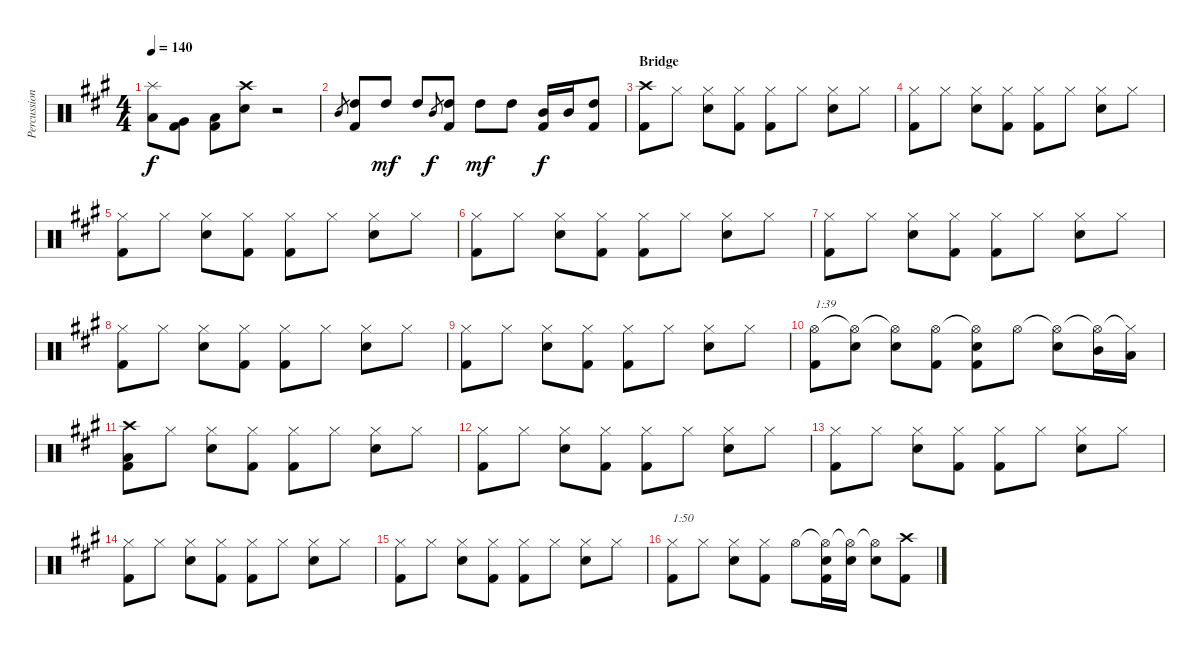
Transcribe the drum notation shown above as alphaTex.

\track ("Percussion" "Percussion") {instrument percussion}
\staff {score}
\articulation defaults
\ts (4 4)
\tempo 140
\clef neutral
\ks a
("Splash (hit)" "Low Tom (hit)").8{dy f} ("Very Low Tom (hit)" "Kick (hit) 2").8 ("Low Floor Tom (hit)" "Kick (hit) 2").8 ("Crash high (hit)" "Electric Snare (hit)").8 r.2 |
"Mid Tom (hit)".8{gr} ("High Tom (hit)" "Kick (hit) 2").8 "High Tom (hit)".8{dy mf} "High Tom (hit)".8 "Mid Tom (hit)".8{gr dy f} ("High Tom (hit)" "Kick (hit) 2").8 "High Tom (hit)".8{dy mf} "High Tom (hit)".8 ("Mid Tom (hit)" "Kick (hit) 2").16{dy f} "Mid Tom (hit)".16 ("High Tom (hit)" "Kick (hit) 2").8 |
\section ("" "Bridge")
("Crash high (hit)" "Kick (hit) 2").8 "Hi-Hat (closed)".8 ("Hi-Hat (closed)" "Electric Snare (hit)").8 ("Hi-Hat (closed)" "Kick (hit) 2").8 ("Hi-Hat (closed)" "Kick (hit) 2").8 "Hi-Hat (closed)".8 ("Hi-Hat (closed)" "Electric Snare (hit)").8 "Hi-Hat (closed)".8 |
("Hi-Hat (closed)" "Kick (hit) 2").8 "Hi-Hat (closed)".8 ("Hi-Hat (closed)" "Electric Snare (hit)").8 ("Hi-Hat (closed)" "Kick (hit) 2").8 ("Hi-Hat (closed)" "Kick (hit) 2").8 "Hi-Hat (closed)".8 ("Hi-Hat (closed)" "Electric Snare (hit)").8 "Hi-Hat (closed)".8 |
("Hi-Hat (closed)" "Kick (hit) 2").8 "Hi-Hat (closed)".8 ("Hi-Hat (closed)" "Electric Snare (hit)").8 ("Hi-Hat (closed)" "Kick (hit) 2").8 ("Hi-Hat (closed)" "Kick (hit) 2").8 "Hi-Hat (closed)".8 ("Hi-Hat (closed)" "Electric Snare (hit)").8 "Hi-Hat (closed)".8 |
("Hi-Hat (closed)" "Kick (hit) 2").8 "Hi-Hat (closed)".8 ("Hi-Hat (closed)" "Electric Snare (hit)").8 ("Hi-Hat (closed)" "Kick (hit) 2").8 ("Hi-Hat (closed)" "Kick (hit) 2").8 "Hi-Hat (closed)".8 ("Hi-Hat (closed)" "Electric Snare (hit)").8 "Hi-Hat (closed)".8 |
("Hi-Hat (closed)" "Kick (hit) 2").8 "Hi-Hat (closed)".8 ("Hi-Hat (closed)" "Electric Snare (hit)").8 ("Hi-Hat (closed)" "Kick (hit) 2").8 ("Hi-Hat (closed)" "Kick (hit) 2").8 "Hi-Hat (closed)".8 ("Hi-Hat (closed)" "Electric Snare (hit)").8 "Hi-Hat (closed)".8 |
("Hi-Hat (closed)" "Kick (hit) 2").8 "Hi-Hat (closed)".8 ("Hi-Hat (closed)" "Electric Snare (hit)").8 ("Hi-Hat (closed)" "Kick (hit) 2").8 ("Hi-Hat (closed)" "Kick (hit) 2").8 "Hi-Hat (closed)".8 ("Hi-Hat (closed)" "Electric Snare (hit)").8 "Hi-Hat (closed)".8 |
("Hi-Hat (closed)" "Kick (hit) 2").8 "Hi-Hat (closed)".8 ("Hi-Hat (closed)" "Electric Snare (hit)").8 ("Hi-Hat (closed)" "Kick (hit) 2").8 ("Hi-Hat (closed)" "Kick (hit) 2").8 "Hi-Hat (closed)".8 ("Hi-Hat (closed)" "Electric Snare (hit)").8 "Hi-Hat (closed)".8 |
("Hi-Hat (open)" "Kick (hit) 2").8{txt "1:39"} ("Hi-Hat (open)"{t} "Electric Snare (hit)").8 ("Hi-Hat (open)"{t} "Electric Snare (hit)").8 ("Hi-Hat (open)" "Kick (hit) 2").8 ("Hi-Hat (open)"{t} "Electric Snare (hit)" "Kick (hit) 2").8 "Hi-Hat (open)".8 ("Hi-Hat (open)"{t} "Electric Snare (hit)").8 ("Hi-Hat (open)"{t} "Mid Tom (hit)").16 ("Hi-Hat (closed)"{t} "Low Tom (hit)").16 |
("Crash high (hit)" "Low Tom (hit)" "Kick (hit) 2").8 "Hi-Hat (closed)".8 ("Hi-Hat (closed)" "Electric Snare (hit)").8 ("Hi-Hat (closed)" "Kick (hit) 2").8 ("Hi-Hat (closed)" "Kick (hit) 2").8 "Hi-Hat (closed)".8 ("Hi-Hat (closed)" "Electric Snare (hit)").8 "Hi-Hat (closed)".8 |
("Hi-Hat (closed)" "Kick (hit) 2").8 "Hi-Hat (closed)".8 ("Hi-Hat (closed)" "Electric Snare (hit)").8 ("Hi-Hat (closed)" "Kick (hit) 2").8 ("Hi-Hat (closed)" "Kick (hit) 2").8 "Hi-Hat (closed)".8 ("Hi-Hat (closed)" "Electric Snare (hit)").8 "Hi-Hat (closed)".8 |
("Hi-Hat (closed)" "Kick (hit) 2").8 "Hi-Hat (closed)".8 ("Hi-Hat (closed)" "Electric Snare (hit)").8 ("Hi-Hat (closed)" "Kick (hit) 2").8 ("Hi-Hat (closed)" "Kick (hit) 2").8 "Hi-Hat (closed)".8 ("Hi-Hat (closed)" "Electric Snare (hit)").8 "Hi-Hat (closed)".8 |
("Hi-Hat (closed)" "Kick (hit) 2").8 "Hi-Hat (closed)".8 ("Hi-Hat (closed)" "Electric Snare (hit)").8 ("Hi-Hat (closed)" "Kick (hit) 2").8 ("Hi-Hat (closed)" "Kick (hit) 2").8 "Hi-Hat (closed)".8 ("Hi-Hat (closed)" "Electric Snare (hit)").8 "Hi-Hat (closed)".8 |
("Hi-Hat (closed)" "Kick (hit) 2").8 "Hi-Hat (closed)".8 ("Hi-Hat (closed)" "Electric Snare (hit)").8 ("Hi-Hat (closed)" "Kick (hit) 2").8 ("Hi-Hat (closed)" "Kick (hit) 2").8 "Hi-Hat (closed)".8 ("Hi-Hat (closed)" "Electric Snare (hit)").8 "Hi-Hat (closed)".8 |
("Hi-Hat (closed)" "Kick (hit) 2").8{txt "1:50"} "Hi-Hat (closed)".8 ("Hi-Hat (closed)" "Electric Snare (hit)").8 ("Hi-Hat (closed)" "Kick (hit) 2").8 "Hi-Hat (open)".8 ("Hi-Hat (open)"{t} "Electric Snare (hit)" "Kick (hit) 2").16 ("Hi-Hat (open)"{t} "Electric Snare (hit)").16 ("Hi-Hat (open)"{t} "Electric Snare (hit)").8 ("Crash high (hit)" "Kick (hit) 2").8
